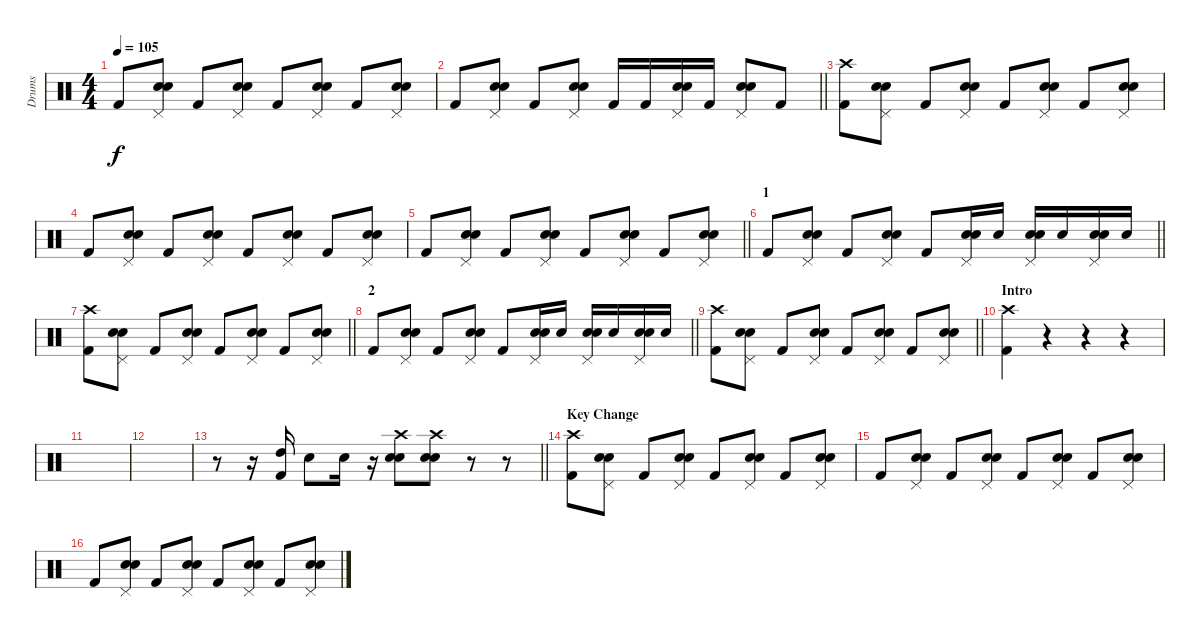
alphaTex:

\track ("Drums" "Drums") {instrument percussion}
\staff {score}
\articulation defaults
\ts (4 4)
\tempo 105
\clef neutral
\ks c "Kick (hit) 2".8{dy f}
("Pedal Hi-Hat (hit)" "Electric Snare (hit)" "Hand Clap (hit)").8 "Kick (hit) 2".8 ("Pedal Hi-Hat (hit)" "Electric Snare (hit)" "Hand Clap (hit)").8 "Kick (hit) 2".8 ("Pedal Hi-Hat (hit)" "Electric Snare (hit)" "Hand Clap (hit)").8 "Kick (hit) 2".8 ("Pedal Hi-Hat (hit)" "Electric Snare (hit)" "Hand Clap (hit)").8 |
\barLineRight lightlight "Kick (hit) 2".8
("Pedal Hi-Hat (hit)" "Electric Snare (hit)" "Hand Clap (hit)").8 "Kick (hit) 2".8 ("Pedal Hi-Hat (hit)" "Electric Snare (hit)" "Hand Clap (hit)").8 "Kick (hit) 2".16 "Kick (hit) 2".16 ("Pedal Hi-Hat (hit)" "Electric Snare (hit)" "Hand Clap (hit)").16 "Kick (hit) 2".16 ("Pedal Hi-Hat (hit)" "Electric Snare (hit)" "Hand Clap (hit)").8 "Kick (hit) 2".8 |
("Crash high (hit)" "Kick (hit) 2").8 ("Pedal Hi-Hat (hit)" "Electric Snare (hit)" "Hand Clap (hit)").8 "Kick (hit) 2".8 ("Pedal Hi-Hat (hit)" "Electric Snare (hit)" "Hand Clap (hit)").8 "Kick (hit) 2".8 ("Pedal Hi-Hat (hit)" "Electric Snare (hit)" "Hand Clap (hit)").8 "Kick (hit) 2".8 ("Pedal Hi-Hat (hit)" "Electric Snare (hit)" "Hand Clap (hit)").8 |
"Kick (hit) 2".8 ("Pedal Hi-Hat (hit)" "Electric Snare (hit)" "Hand Clap (hit)").8 "Kick (hit) 2".8 ("Pedal Hi-Hat (hit)" "Electric Snare (hit)" "Hand Clap (hit)").8 "Kick (hit) 2".8 ("Pedal Hi-Hat (hit)" "Electric Snare (hit)" "Hand Clap (hit)").8 "Kick (hit) 2".8 ("Pedal Hi-Hat (hit)" "Electric Snare (hit)" "Hand Clap (hit)").8 |
\barLineRight lightlight "Kick (hit) 2".8
("Pedal Hi-Hat (hit)" "Electric Snare (hit)" "Hand Clap (hit)").8 "Kick (hit) 2".8 ("Pedal Hi-Hat (hit)" "Electric Snare (hit)" "Hand Clap (hit)").8 "Kick (hit) 2".8 ("Pedal Hi-Hat (hit)" "Electric Snare (hit)" "Hand Clap (hit)").8 "Kick (hit) 2".8 ("Pedal Hi-Hat (hit)" "Electric Snare (hit)" "Hand Clap (hit)").8 |
\section ("" "1")
\barLineRight lightlight "Kick (hit) 2".8
("Pedal Hi-Hat (hit)" "Electric Snare (hit)" "Hand Clap (hit)").8 "Kick (hit) 2".8 ("Pedal Hi-Hat (hit)" "Electric Snare (hit)" "Hand Clap (hit)").8 "Kick (hit) 2".8 ("Pedal Hi-Hat (hit)" "Electric Snare (hit)" "Hand Clap (hit)").16 "Electric Snare (hit)".16 ("Pedal Hi-Hat (hit)" "Electric Snare (hit)" "Hand Clap (hit)").16 "Electric Snare (hit)".16 ("Pedal Hi-Hat (hit)" "Electric Snare (hit)" "Hand Clap (hit)").16 "Electric Snare (hit)".16 |
\barLineRight lightlight
("Crash high (hit)" "Kick (hit) 2").8 ("Pedal Hi-Hat (hit)" "Electric Snare (hit)" "Hand Clap (hit)").8 "Kick (hit) 2".8 ("Pedal Hi-Hat (hit)" "Electric Snare (hit)" "Hand Clap (hit)").8 "Kick (hit) 2".8 ("Pedal Hi-Hat (hit)" "Electric Snare (hit)" "Hand Clap (hit)").8 "Kick (hit) 2".8 ("Pedal Hi-Hat (hit)" "Electric Snare (hit)" "Hand Clap (hit)").8 |
\section ("" "2")
\barLineRight lightlight "Kick (hit) 2".8
("Pedal Hi-Hat (hit)" "Electric Snare (hit)" "Hand Clap (hit)").8 "Kick (hit) 2".8 ("Pedal Hi-Hat (hit)" "Electric Snare (hit)" "Hand Clap (hit)").8 "Kick (hit) 2".8 ("Pedal Hi-Hat (hit)" "Electric Snare (hit)" "Hand Clap (hit)").16 "Electric Snare (hit)".16 ("Pedal Hi-Hat (hit)" "Electric Snare (hit)" "Hand Clap (hit)").16 "Electric Snare (hit)".16 ("Pedal Hi-Hat (hit)" "Electric Snare (hit)" "Hand Clap (hit)").16 "Electric Snare (hit)".16 |
\barLineRight lightlight
("Crash high (hit)" "Kick (hit) 2").8 ("Pedal Hi-Hat (hit)" "Electric Snare (hit)" "Hand Clap (hit)").8 "Kick (hit) 2".8 ("Pedal Hi-Hat (hit)" "Electric Snare (hit)" "Hand Clap (hit)").8 "Kick (hit) 2".8 ("Pedal Hi-Hat (hit)" "Electric Snare (hit)" "Hand Clap (hit)").8 "Kick (hit) 2".8 ("Pedal Hi-Hat (hit)" "Electric Snare (hit)" "Hand Clap (hit)").8 |
\section ("" "Intro")
("Crash high (hit)" "Kick (hit) 2").4 r.4 r.4 r.4 |
|
|
\barLineRight lightlight
r.8 r.16 ("High Tom (hit)" "Kick (hit) 2").16 "Electric Snare (hit)".8 "Electric Snare (hit)".16 r.16 ("Crash high (hit)" "Electric Snare (hit)" "Hand Clap (hit)").8 ("Crash high (hit)" "Electric Snare (hit)" "Hand Clap (hit)").8 r.8 r.8 |
\section ("" "Key Change")
("Crash high (hit)" "Kick (hit) 2").8 ("Pedal Hi-Hat (hit)" "Electric Snare (hit)" "Hand Clap (hit)").8 "Kick (hit) 2".8 ("Pedal Hi-Hat (hit)" "Electric Snare (hit)" "Hand Clap (hit)").8 "Kick (hit) 2".8 ("Pedal Hi-Hat (hit)" "Electric Snare (hit)" "Hand Clap (hit)").8 "Kick (hit) 2".8 ("Pedal Hi-Hat (hit)" "Electric Snare (hit)" "Hand Clap (hit)").8 |
"Kick (hit) 2".8 ("Pedal Hi-Hat (hit)" "Electric Snare (hit)" "Hand Clap (hit)").8 "Kick (hit) 2".8 ("Pedal Hi-Hat (hit)" "Electric Snare (hit)" "Hand Clap (hit)").8 "Kick (hit) 2".8 ("Pedal Hi-Hat (hit)" "Electric Snare (hit)" "Hand Clap (hit)").8 "Kick (hit) 2".8 ("Pedal Hi-Hat (hit)" "Electric Snare (hit)" "Hand Clap (hit)").8 |
"Kick (hit) 2".8 ("Pedal Hi-Hat (hit)" "Electric Snare (hit)" "Hand Clap (hit)").8 "Kick (hit) 2".8 ("Pedal Hi-Hat (hit)" "Electric Snare (hit)" "Hand Clap (hit)").8 "Kick (hit) 2".8 ("Pedal Hi-Hat (hit)" "Electric Snare (hit)" "Hand Clap (hit)").8 "Kick (hit) 2".8 ("Pedal Hi-Hat (hit)" "Electric Snare (hit)" "Hand Clap (hit)").8
